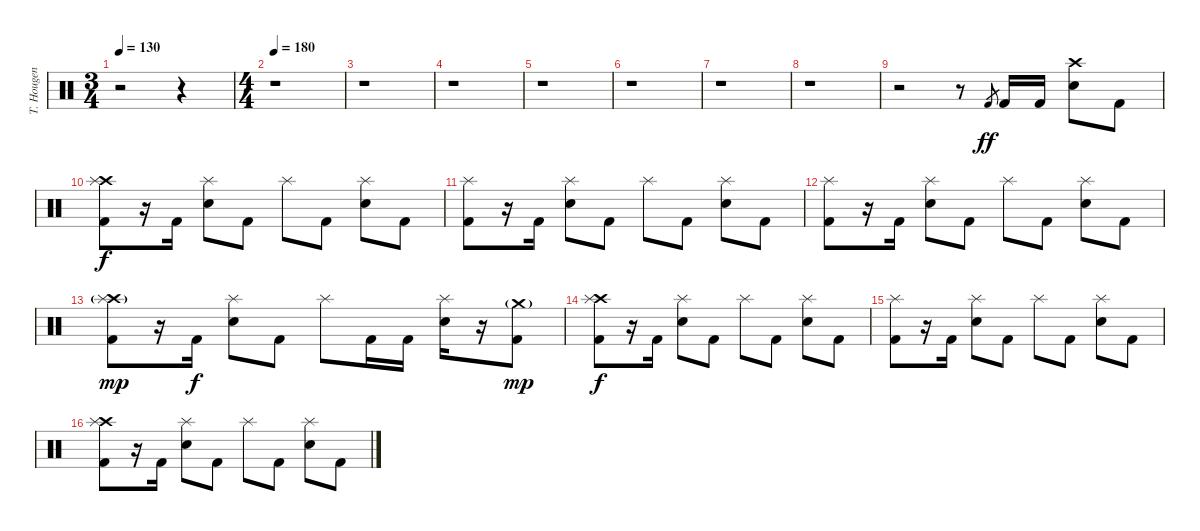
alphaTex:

\track ("T. Hougen - Drums" "T. Hougen ") {instrument percussion}
\staff {score}
\articulation defaults
\ts (3 4)
\tempo 130
\clef neutral
\ks c
r.2{dy f} r.4 |
\ts (4 4)
\tempo 180
r.1 |
r.1 |
r.1 |
r.1 |
r.1 |
r.1 |
r.1 |
r.2{volume 15} r.8 "Kick (hit) 2".8{gr dy ff} "Kick (hit) 2".16 "Kick (hit) 2".16 ("Crash high (hit)" "Electric Snare (hit)").8 "Kick (hit) 2".8 |
("Crash high (hit)" "Splash (hit)" "Kick (hit) 2").8{dy f} r.16 "Kick (hit) 2".16 ("Splash (hit)" "Electric Snare (hit)").8 "Kick (hit) 2".8 "Splash (hit)".8 "Kick (hit) 2".8 ("Splash (hit)" "Electric Snare (hit)").8 "Kick (hit) 2".8 |
("Splash (hit)" "Kick (hit) 2").8 r.16 "Kick (hit) 2".16 ("Splash (hit)" "Electric Snare (hit)").8 "Kick (hit) 2".8 "Splash (hit)".8 "Kick (hit) 2".8 ("Splash (hit)" "Electric Snare (hit)").8 "Kick (hit) 2".8 |
("Splash (hit)" "Kick (hit) 2").8 r.16 "Kick (hit) 2".16 ("Splash (hit)" "Electric Snare (hit)").8 "Kick (hit) 2".8 "Splash (hit)".8 "Kick (hit) 2".8 ("Splash (hit)" "Electric Snare (hit)").8 "Kick (hit) 2".8 |
("Crash high (hit)"{g} "Splash (hit)" "Kick (hit) 2").8{dy mp} r.16 "Kick (hit) 2".16{dy f} ("Splash (hit)" "Electric Snare (hit)").8 "Kick (hit) 2".8 "Splash (hit)".8 "Kick (hit) 2".16 "Kick (hit) 2".16 ("Splash (hit)" "Electric Snare (hit)").16 r.16 ("Crash medium (hit)"{g} "Kick (hit) 2").8{dy mp} |
("Crash high (hit)" "Splash (hit)" "Kick (hit) 2").8{dy f} r.16 "Kick (hit) 2".16 ("Splash (hit)" "Electric Snare (hit)").8 "Kick (hit) 2".8 "Splash (hit)".8 "Kick (hit) 2".8 ("Splash (hit)" "Electric Snare (hit)").8 "Kick (hit) 2".8 |
("Splash (hit)" "Kick (hit) 2").8 r.16 "Kick (hit) 2".16 ("Splash (hit)" "Electric Snare (hit)").8 "Kick (hit) 2".8 "Splash (hit)".8 "Kick (hit) 2".8 ("Splash (hit)" "Electric Snare (hit)").8 "Kick (hit) 2".8 |
("Crash high (hit)" "Splash (hit)" "Kick (hit) 2").8 r.16 "Kick (hit) 2".16 ("Splash (hit)" "Electric Snare (hit)").8 "Kick (hit) 2".8 "Splash (hit)".8 "Kick (hit) 2".8 ("Splash (hit)" "Electric Snare (hit)").8 "Kick (hit) 2".8
